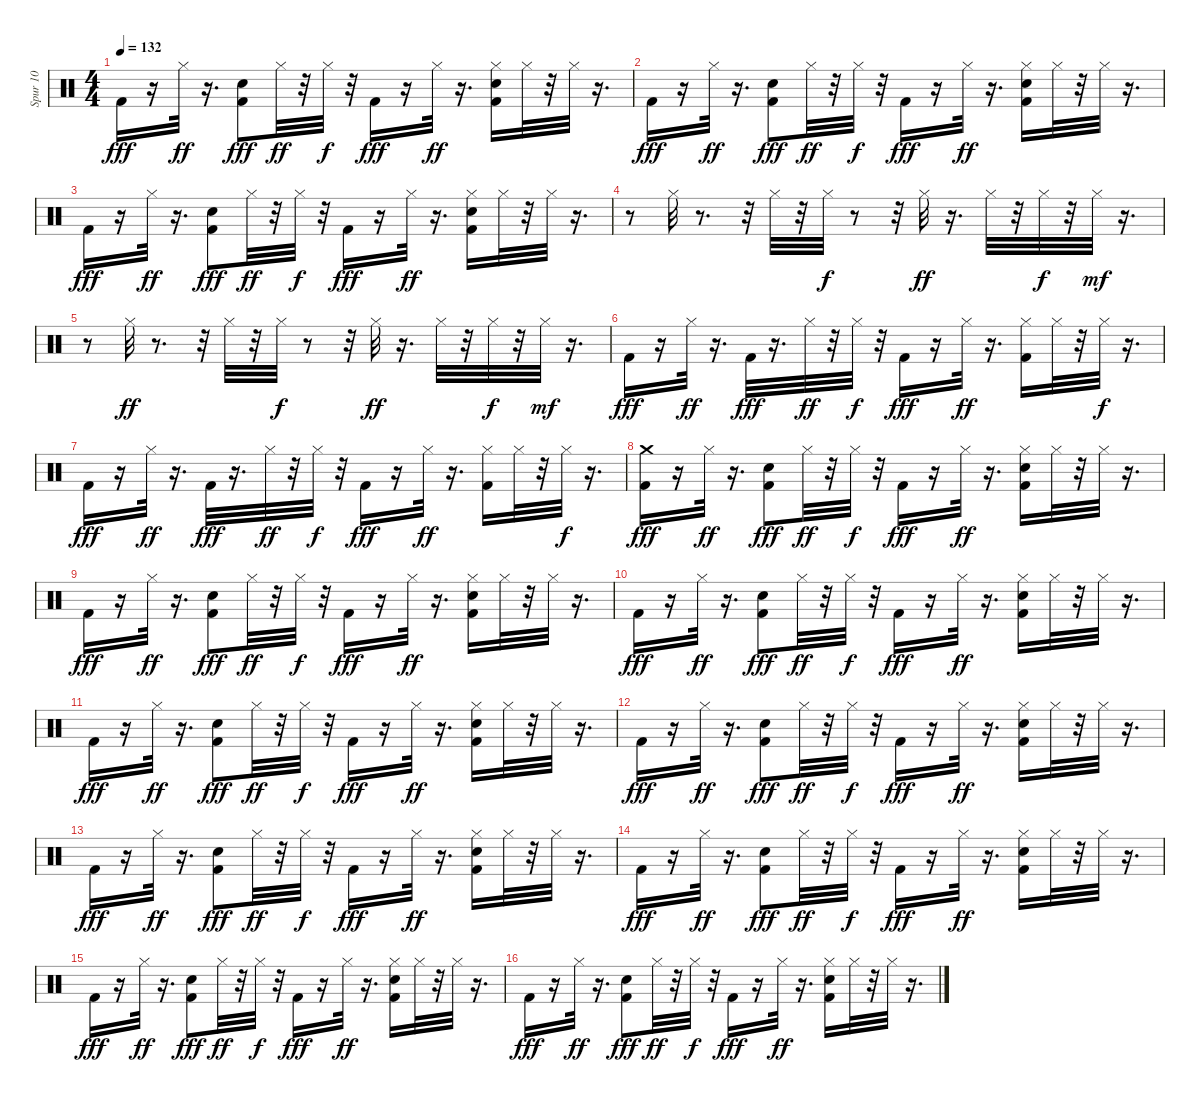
\track ("Spur 10" "Spur 10") {instrument percussion}
\staff {score}
\articulation defaults
\ts (4 4)
\tempo 132
\clef neutral
\ks c "Kick (hit) 2".16{dy fff}
r.16 "Hi-Hat (closed)".32{dy ff} r.16{d} ("Snare (hit) 2" "Kick (hit) 2").8{dy fff} "Hi-Hat (closed)".32{dy ff} r.32 "Hi-Hat (closed)".32{dy f} r.32 "Kick (hit) 2".16{dy fff} r.16 "Hi-Hat (closed)".32{dy ff} r.16{d} ("Snare (hit) 2" "Kick (hit) 2" "Hi-Hat (closed)").16 "Hi-Hat (closed)".32 r.32 "Hi-Hat (closed)".32 r.16{d} |
"Kick (hit) 2".16{dy fff} r.16 "Hi-Hat (closed)".32{dy ff} r.16{d} ("Snare (hit) 2" "Kick (hit) 2").8{dy fff} "Hi-Hat (closed)".32{dy ff} r.32 "Hi-Hat (closed)".32{dy f} r.32 "Kick (hit) 2".16{dy fff} r.16 "Hi-Hat (closed)".32{dy ff} r.16{d} ("Snare (hit) 2" "Kick (hit) 2" "Hi-Hat (closed)").16 "Hi-Hat (closed)".32 r.32 "Hi-Hat (closed)".32 r.16{d} |
"Kick (hit) 2".16{dy fff} r.16 "Hi-Hat (closed)".32{dy ff} r.16{d} ("Snare (hit) 2" "Kick (hit) 2").8{dy fff} "Hi-Hat (closed)".32{dy ff} r.32 "Hi-Hat (closed)".32{dy f} r.32 "Kick (hit) 2".16{dy fff} r.16 "Hi-Hat (closed)".32{dy ff} r.16{d} ("Snare (hit) 2" "Kick (hit) 2" "Hi-Hat (closed)").16 "Hi-Hat (closed)".32 r.32 "Hi-Hat (closed)".32 r.16{d} |
r.8 "Hi-Hat (closed)".32 r.8{d} r.32 "Hi-Hat (closed)".32 r.32 "Hi-Hat (closed)".32{dy f} r.8 r.32 "Hi-Hat (closed)".32{dy ff} r.16{d} "Hi-Hat (closed)".32 r.32 "Hi-Hat (closed)".32{dy f} r.32 "Hi-Hat (closed)".32{dy mf} r.16{d} |
r.8 "Hi-Hat (closed)".32{dy ff} r.8{d} r.32 "Hi-Hat (closed)".32 r.32 "Hi-Hat (closed)".32{dy f} r.8 r.32 "Hi-Hat (closed)".32{dy ff} r.16{d} "Hi-Hat (closed)".32 r.32 "Hi-Hat (closed)".32{dy f} r.32 "Hi-Hat (closed)".32{dy mf} r.16{d} |
"Kick (hit) 2".16{dy fff} r.16 "Hi-Hat (closed)".32{dy ff} r.16{d} "Kick (hit) 2".32{dy fff} r.16{d} "Hi-Hat (closed)".32{dy ff} r.32 "Hi-Hat (closed)".32{dy f} r.32 "Kick (hit) 2".16{dy fff} r.16 "Hi-Hat (closed)".32{dy ff} r.16{d} ("Kick (hit) 2" "Hi-Hat (closed)").16 "Hi-Hat (closed)".32 r.32 "Hi-Hat (closed)".32{dy f} r.16{d} |
"Kick (hit) 2".16{dy fff} r.16 "Hi-Hat (closed)".32{dy ff} r.16{d} "Kick (hit) 2".32{dy fff} r.16{d} "Hi-Hat (closed)".32{dy ff} r.32 "Hi-Hat (closed)".32{dy f} r.32 "Kick (hit) 2".16{dy fff} r.16 "Hi-Hat (closed)".32{dy ff} r.16{d} ("Kick (hit) 2" "Hi-Hat (closed)").16 "Hi-Hat (closed)".32 r.32 "Hi-Hat (closed)".32{dy f} r.16{d} |
("Crash medium (hit)" "Kick (hit) 2").16{dy fff} r.16 "Hi-Hat (closed)".32{dy ff} r.16{d} ("Snare (hit) 2" "Kick (hit) 2").8{dy fff} "Hi-Hat (closed)".32{dy ff} r.32 "Hi-Hat (closed)".32{dy f} r.32 "Kick (hit) 2".16{dy fff} r.16 "Hi-Hat (closed)".32{dy ff} r.16{d} ("Snare (hit) 2" "Kick (hit) 2" "Hi-Hat (closed)").16 "Hi-Hat (closed)".32 r.32 "Hi-Hat (closed)".32 r.16{d} |
"Kick (hit) 2".16{dy fff} r.16 "Hi-Hat (closed)".32{dy ff} r.16{d} ("Snare (hit) 2" "Kick (hit) 2").8{dy fff} "Hi-Hat (closed)".32{dy ff} r.32 "Hi-Hat (closed)".32{dy f} r.32 "Kick (hit) 2".16{dy fff} r.16 "Hi-Hat (closed)".32{dy ff} r.16{d} ("Snare (hit) 2" "Kick (hit) 2" "Hi-Hat (closed)").16 "Hi-Hat (closed)".32 r.32 "Hi-Hat (closed)".32 r.16{d} |
"Kick (hit) 2".16{dy fff} r.16 "Hi-Hat (closed)".32{dy ff} r.16{d} ("Snare (hit) 2" "Kick (hit) 2").8{dy fff} "Hi-Hat (closed)".32{dy ff} r.32 "Hi-Hat (closed)".32{dy f} r.32 "Kick (hit) 2".16{dy fff} r.16 "Hi-Hat (closed)".32{dy ff} r.16{d} ("Snare (hit) 2" "Kick (hit) 2" "Hi-Hat (closed)").16 "Hi-Hat (closed)".32 r.32 "Hi-Hat (closed)".32 r.16{d} |
"Kick (hit) 2".16{dy fff} r.16 "Hi-Hat (closed)".32{dy ff} r.16{d} ("Snare (hit) 2" "Kick (hit) 2").8{dy fff} "Hi-Hat (closed)".32{dy ff} r.32 "Hi-Hat (closed)".32{dy f} r.32 "Kick (hit) 2".16{dy fff} r.16 "Hi-Hat (closed)".32{dy ff} r.16{d} ("Snare (hit) 2" "Kick (hit) 2" "Hi-Hat (closed)").16 "Hi-Hat (closed)".32 r.32 "Hi-Hat (closed)".32 r.16{d} |
"Kick (hit) 2".16{dy fff} r.16 "Hi-Hat (closed)".32{dy ff} r.16{d} ("Snare (hit) 2" "Kick (hit) 2").8{dy fff} "Hi-Hat (closed)".32{dy ff} r.32 "Hi-Hat (closed)".32{dy f} r.32 "Kick (hit) 2".16{dy fff} r.16 "Hi-Hat (closed)".32{dy ff} r.16{d} ("Snare (hit) 2" "Kick (hit) 2" "Hi-Hat (closed)").16 "Hi-Hat (closed)".32 r.32 "Hi-Hat (closed)".32 r.16{d} |
"Kick (hit) 2".16{dy fff} r.16 "Hi-Hat (closed)".32{dy ff} r.16{d} ("Snare (hit) 2" "Kick (hit) 2").8{dy fff} "Hi-Hat (closed)".32{dy ff} r.32 "Hi-Hat (closed)".32{dy f} r.32 "Kick (hit) 2".16{dy fff} r.16 "Hi-Hat (closed)".32{dy ff} r.16{d} ("Snare (hit) 2" "Kick (hit) 2" "Hi-Hat (closed)").16 "Hi-Hat (closed)".32 r.32 "Hi-Hat (closed)".32 r.16{d} |
"Kick (hit) 2".16{dy fff} r.16 "Hi-Hat (closed)".32{dy ff} r.16{d} ("Snare (hit) 2" "Kick (hit) 2").8{dy fff} "Hi-Hat (closed)".32{dy ff} r.32 "Hi-Hat (closed)".32{dy f} r.32 "Kick (hit) 2".16{dy fff} r.16 "Hi-Hat (closed)".32{dy ff} r.16{d} ("Snare (hit) 2" "Kick (hit) 2" "Hi-Hat (closed)").16 "Hi-Hat (closed)".32 r.32 "Hi-Hat (closed)".32 r.16{d} |
"Kick (hit) 2".16{dy fff} r.16 "Hi-Hat (closed)".32{dy ff} r.16{d} ("Snare (hit) 2" "Kick (hit) 2").8{dy fff} "Hi-Hat (closed)".32{dy ff} r.32 "Hi-Hat (closed)".32{dy f} r.32 "Kick (hit) 2".16{dy fff} r.16 "Hi-Hat (closed)".32{dy ff} r.16{d} ("Snare (hit) 2" "Kick (hit) 2" "Hi-Hat (closed)").16 "Hi-Hat (closed)".32 r.32 "Hi-Hat (closed)".32 r.16{d} |
"Kick (hit) 2".16{dy fff} r.16 "Hi-Hat (closed)".32{dy ff} r.16{d} ("Snare (hit) 2" "Kick (hit) 2").8{dy fff} "Hi-Hat (closed)".32{dy ff} r.32 "Hi-Hat (closed)".32{dy f} r.32 "Kick (hit) 2".16{dy fff} r.16 "Hi-Hat (closed)".32{dy ff} r.16{d} ("Snare (hit) 2" "Kick (hit) 2" "Hi-Hat (closed)").16 "Hi-Hat (closed)".32 r.32 "Hi-Hat (closed)".32 r.16{d}
